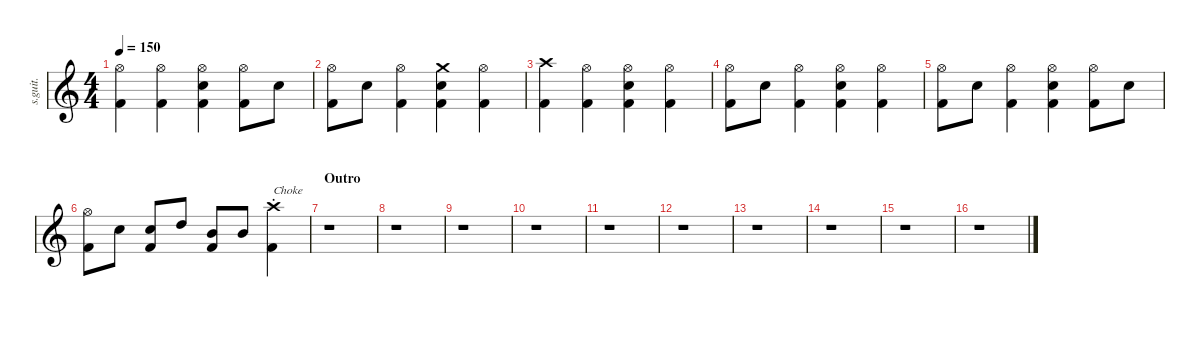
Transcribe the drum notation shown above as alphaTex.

\defaultSystemsLayout 4
\hideDynamics
\bracketExtendMode nobrackets
\track ("Christoph Schneider" "s.guit.") {instrument percussion}
\staff {score}
\articulation defaults
\ts (4 4)
\tempo 150
\clef g2
\ks c
("Hi-Hat (open)" "Kick (hit) 2").4{lyrics (0 "") lyrics (1 "") lyrics (2 "") lyrics (3 "") lyrics (4 "") dy ff} ("Hi-Hat (open)" "Kick (hit) 2").4{lyrics (0 "") lyrics (1 "") lyrics (2 "") lyrics (3 "") lyrics (4 "")} ("Hi-Hat (open)" "Snare (hit) 2" "Kick (hit) 2").4{lyrics (0 "") lyrics (1 "") lyrics (2 "") lyrics (3 "") lyrics (4 "")} ("Hi-Hat (open)" "Kick (hit) 2").8{lyrics (0 "") lyrics (1 "") lyrics (2 "") lyrics (3 "") lyrics (4 "")} "Snare (hit) 2".8{lyrics (0 "") lyrics (1 "") lyrics (2 "") lyrics (3 "") lyrics (4 "")} |
("Hi-Hat (open)" "Kick (hit) 2").8{lyrics (0 "") lyrics (1 "") lyrics (2 "") lyrics (3 "") lyrics (4 "")} "Snare (hit) 2".8{lyrics (0 "") lyrics (1 "") lyrics (2 "") lyrics (3 "") lyrics (4 "")} ("Hi-Hat (open)" "Kick (hit) 2").4{lyrics (0 "") lyrics (1 "") lyrics (2 "") lyrics (3 "") lyrics (4 "")} ("Crash medium (hit)" "Snare (hit) 2" "Kick (hit) 2").4{lyrics (0 "") lyrics (1 "") lyrics (2 "") lyrics (3 "") lyrics (4 "")} ("Kick (hit) 2" "Hi-Hat (open)").4{lyrics (0 "") lyrics (1 "") lyrics (2 "") lyrics (3 "") lyrics (4 "")} |
("Kick (hit) 2" "Crash high (hit)").4{lyrics (0 "") lyrics (1 "") lyrics (2 "") lyrics (3 "") lyrics (4 "")} ("Kick (hit) 2" "Hi-Hat (open)").4{lyrics (0 "") lyrics (1 "") lyrics (2 "") lyrics (3 "") lyrics (4 "")} ("Kick (hit) 2" "Snare (hit) 2" "Hi-Hat (open)").4{lyrics (0 "") lyrics (1 "") lyrics (2 "") lyrics (3 "") lyrics (4 "")} ("Kick (hit) 2" "Hi-Hat (open)").4{lyrics (0 "") lyrics (1 "") lyrics (2 "") lyrics (3 "") lyrics (4 "")} |
("Hi-Hat (open)" "Kick (hit) 2").8{lyrics (0 "") lyrics (1 "") lyrics (2 "") lyrics (3 "") lyrics (4 "")} "Snare (hit) 2".8{lyrics (0 "") lyrics (1 "") lyrics (2 "") lyrics (3 "") lyrics (4 "")} ("Hi-Hat (open)" "Kick (hit) 2").4{lyrics (0 "") lyrics (1 "") lyrics (2 "") lyrics (3 "") lyrics (4 "")} ("Hi-Hat (open)" "Kick (hit) 2" "Snare (hit) 2").4{lyrics (0 "") lyrics (1 "") lyrics (2 "") lyrics (3 "") lyrics (4 "")} ("Hi-Hat (open)" "Kick (hit) 2").4{lyrics (0 "") lyrics (1 "") lyrics (2 "") lyrics (3 "") lyrics (4 "")} |
("Hi-Hat (open)" "Kick (hit) 2").8{lyrics (0 "") lyrics (1 "") lyrics (2 "") lyrics (3 "") lyrics (4 "")} "Snare (hit) 2".8{lyrics (0 "") lyrics (1 "") lyrics (2 "") lyrics (3 "") lyrics (4 "")} ("Hi-Hat (open)" "Kick (hit) 2").4{lyrics (0 "") lyrics (1 "") lyrics (2 "") lyrics (3 "") lyrics (4 "")} ("Hi-Hat (open)" "Snare (hit) 2" "Kick (hit) 2").4{lyrics (0 "") lyrics (1 "") lyrics (2 "") lyrics (3 "") lyrics (4 "")} ("Hi-Hat (open)" "Kick (hit) 2").8{lyrics (0 "") lyrics (1 "") lyrics (2 "") lyrics (3 "") lyrics (4 "")} "Snare (hit) 2".8{lyrics (0 "") lyrics (1 "") lyrics (2 "") lyrics (3 "") lyrics (4 "")} |
("Hi-Hat (open)" "Kick (hit) 2").8{lyrics (0 "") lyrics (1 "") lyrics (2 "") lyrics (3 "") lyrics (4 "")} "Snare (hit) 2".8{lyrics (0 "") lyrics (1 "") lyrics (2 "") lyrics (3 "") lyrics (4 "")} ("Snare (hit) 2" "Kick (hit) 2").8{lyrics (0 "") lyrics (1 "") lyrics (2 "") lyrics (3 "") lyrics (4 "")} "High Tom (hit)".8{lyrics (0 "") lyrics (1 "") lyrics (2 "") lyrics (3 "") lyrics (4 "")} ("Kick (hit) 2" "Mid Tom (hit)").8{lyrics (0 "") lyrics (1 "") lyrics (2 "") lyrics (3 "") lyrics (4 "")} "Mid Tom (hit)".8{lyrics (0 "") lyrics (1 "") lyrics (2 "") lyrics (3 "") lyrics (4 "")} ("Kick (hit) 2" "Crash high (choke)").4{txt "Choke" lyrics (0 "") lyrics (1 "") lyrics (2 "") lyrics (3 "") lyrics (4 "")} |
\section ("" "Outro")
r.1 |
r.1 |
r.1 |
r.1 |
r.1 |
r.1 |
r.1 |
r.1 |
r.1 |
r.1
